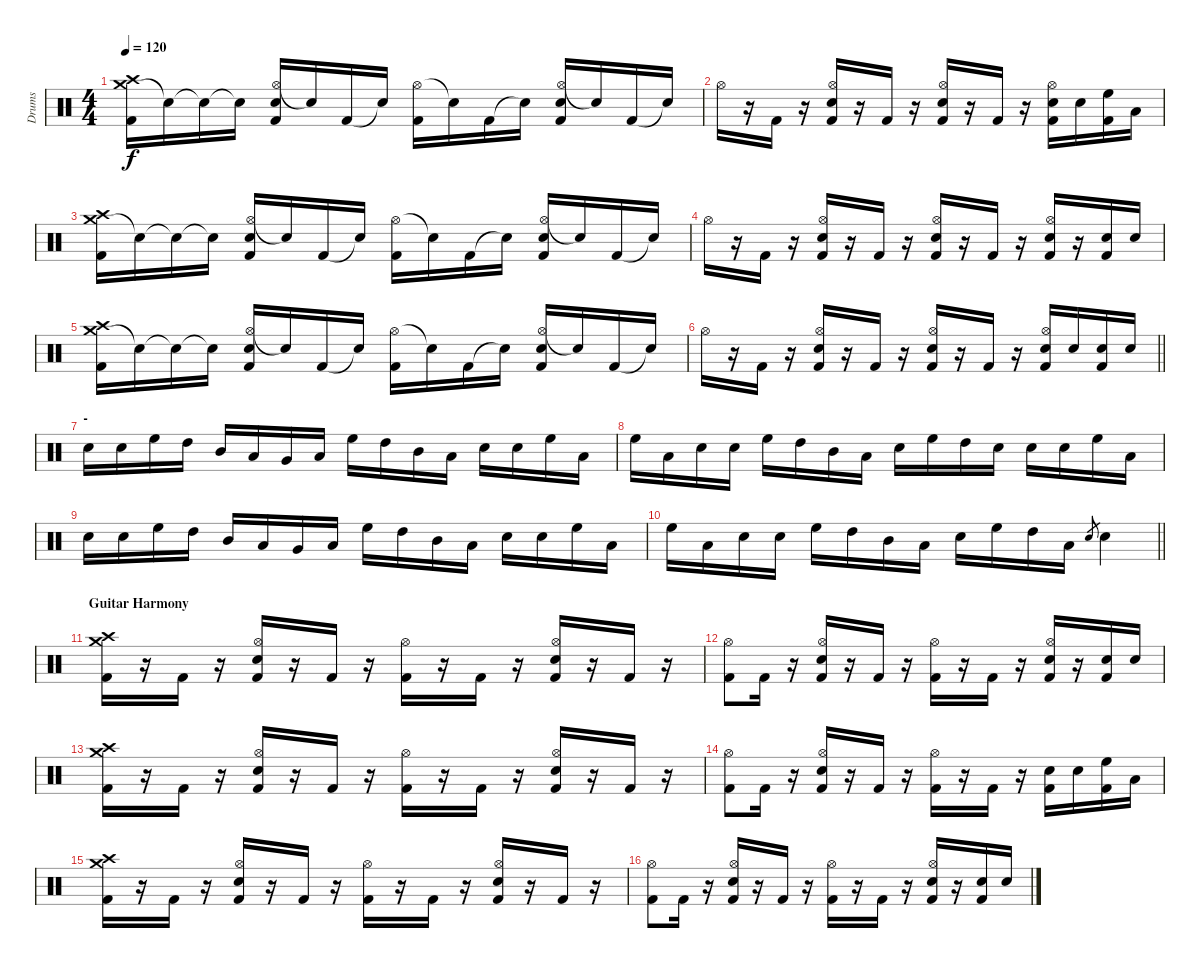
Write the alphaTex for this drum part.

\track ("Drums" "Drums") {instrument percussion}
\staff {score}
\articulation defaults
\ts (4 4)
\tempo 120
\clef neutral
\ks c
("Crash medium (hit)" "Crash high (hit)" "Kick (hit) 2").16{dy f} "Snare (hit)"{t}.16 "Snare (hit)"{t}.16 "Snare (hit)"{t}.16 ("Hi-Hat (open)" "Electric Snare (hit)" "Kick (hit) 2").16 "Snare (hit)"{t}.16 "Kick (hit) 2".16 "Snare (hit)"{t}.16 ("Hi-Hat (open)" "Kick (hit) 2").16 "Snare (hit)"{t}.16 "Kick (hit) 2".16 "Snare (hit)"{t}.16 ("Hi-Hat (open)" "Electric Snare (hit)" "Kick (hit) 2").16 "Snare (hit)"{t}.16 "Kick (hit) 2".16 "Snare (hit)"{t}.16 |
"Hi-Hat (open)".16 r.16 "Kick (hit) 2".16 r.16 ("Hi-Hat (open)" "Electric Snare (hit)" "Kick (hit) 2").16 r.16 "Kick (hit) 2".16 r.16 ("Hi-Hat (open)" "Electric Snare (hit)" "Kick (hit) 2").16 r.16 "Kick (hit) 2".16 r.16 ("Hi-Hat (open)" "Electric Snare (hit)" "Kick (hit) 2").16 "Electric Snare (hit)".16 ("High Floor Tom (hit)" "Kick (hit) 2").16 "Low Tom (hit)".16 |
("Crash medium (hit)" "Crash high (hit)" "Kick (hit) 2").16 "Snare (hit)"{t}.16 "Snare (hit)"{t}.16 "Snare (hit)"{t}.16 ("Hi-Hat (open)" "Electric Snare (hit)" "Kick (hit) 2").16 "Snare (hit)"{t}.16 "Kick (hit) 2".16 "Snare (hit)"{t}.16 ("Hi-Hat (open)" "Kick (hit) 2").16 "Snare (hit)"{t}.16 "Kick (hit) 2".16 "Snare (hit)"{t}.16 ("Hi-Hat (open)" "Electric Snare (hit)" "Kick (hit) 2").16 "Snare (hit)"{t}.16 "Kick (hit) 2".16 "Snare (hit)"{t}.16 |
"Hi-Hat (open)".16 r.16 "Kick (hit) 2".16 r.16 ("Hi-Hat (open)" "Electric Snare (hit)" "Kick (hit) 2").16 r.16 "Kick (hit) 2".16 r.16 ("Hi-Hat (open)" "Electric Snare (hit)" "Kick (hit) 2").16 r.16 "Kick (hit) 2".16 r.16 ("Hi-Hat (open)" "Electric Snare (hit)" "Kick (hit) 2").16 r.16 ("Electric Snare (hit)" "Kick (hit) 2").16 "Electric Snare (hit)".16 |
("Crash medium (hit)" "Crash high (hit)" "Kick (hit) 2").16 "Snare (hit)"{t}.16 "Snare (hit)"{t}.16 "Snare (hit)"{t}.16 ("Hi-Hat (open)" "Electric Snare (hit)" "Kick (hit) 2").16 "Snare (hit)"{t}.16 "Kick (hit) 2".16 "Snare (hit)"{t}.16 ("Hi-Hat (open)" "Kick (hit) 2").16 "Snare (hit)"{t}.16 "Kick (hit) 2".16 "Snare (hit)"{t}.16 ("Hi-Hat (open)" "Electric Snare (hit)" "Kick (hit) 2").16 "Snare (hit)"{t}.16 "Kick (hit) 2".16 "Snare (hit)"{t}.16 |
\barLineRight lightlight "Hi-Hat (open)".16
r.16 "Kick (hit) 2".16 r.16 ("Hi-Hat (open)" "Electric Snare (hit)" "Kick (hit) 2").16 r.16 "Kick (hit) 2".16 r.16 ("Hi-Hat (open)" "Electric Snare (hit)" "Kick (hit) 2").16 r.16 "Kick (hit) 2".16 r.16 ("Hi-Hat (open)" "Electric Snare (hit)" "Kick (hit) 2").16 "Electric Snare (hit)".16 ("Electric Snare (hit)" "Kick (hit) 2").16 "Electric Snare (hit)".16 |
\section ("" "-")
"Electric Snare (hit)".16 "Electric Snare (hit)".16 "High Floor Tom (hit)".16 "High Tom (hit)".16 "Mid Tom (hit)".16 "Low Tom (hit)".16 "Very Low Tom (hit)".16 "Low Floor Tom (hit)".16 "High Floor Tom (hit)".16 "High Tom (hit)".16 "Mid Tom (hit)".16 "Low Tom (hit)".16 "Electric Snare (hit)".16 "Electric Snare (hit)".16 "High Floor Tom (hit)".16 "Low Tom (hit)".16 |
"High Floor Tom (hit)".16 "Low Tom (hit)".16 "Electric Snare (hit)".16 "Electric Snare (hit)".16 "High Floor Tom (hit)".16 "High Tom (hit)".16 "Mid Tom (hit)".16 "Low Tom (hit)".16 "Electric Snare (hit)".16 "High Floor Tom (hit)".16 "High Tom (hit)".16 "Electric Snare (hit)".16 "Electric Snare (hit)".16 "Electric Snare (hit)".16 "High Floor Tom (hit)".16 "Low Tom (hit)".16 |
"Electric Snare (hit)".16 "Electric Snare (hit)".16 "High Floor Tom (hit)".16 "High Tom (hit)".16 "Mid Tom (hit)".16 "Low Tom (hit)".16 "Very Low Tom (hit)".16 "Low Floor Tom (hit)".16 "High Floor Tom (hit)".16 "High Tom (hit)".16 "Mid Tom (hit)".16 "Low Tom (hit)".16 "Electric Snare (hit)".16 "Electric Snare (hit)".16 "High Floor Tom (hit)".16 "Low Tom (hit)".16 |
\barLineRight lightlight "High Floor Tom (hit)".16 "Low Tom (hit)".16 "Electric Snare (hit)".16 "Electric Snare (hit)".16 "High Floor Tom (hit)".16 "High Tom (hit)".16 "Mid Tom (hit)".16 "Low Tom (hit)".16 "Electric Snare (hit)".16 "High Floor Tom (hit)".16 "High Tom (hit)".16 "Low Tom (hit)".16 "Electric Snare (hit)".8{gr} "Electric Snare (hit)".4
|
\section ("" "Guitar Harmony")
("Crash medium (hit)" "Crash high (hit)" "Kick (hit) 2").16 r.16 "Kick (hit) 2".16 r.16 ("Hi-Hat (open)" "Electric Snare (hit)" "Kick (hit) 2").16 r.16 "Kick (hit) 2".16 r.16 ("Hi-Hat (open)" "Kick (hit) 2").16 r.16 "Kick (hit) 2".16 r.16 ("Hi-Hat (open)" "Electric Snare (hit)" "Kick (hit) 2").16 r.16 "Kick (hit) 2".16 r.16 |
("Hi-Hat (open)" "Kick (hit) 2").8 "Kick (hit) 2".16 r.16 ("Hi-Hat (open)" "Electric Snare (hit)" "Kick (hit) 2").16 r.16 "Kick (hit) 2".16 r.16 ("Hi-Hat (open)" "Kick (hit) 2").16 r.16 "Kick (hit) 2".16 r.16 ("Hi-Hat (open)" "Electric Snare (hit)" "Kick (hit) 2").16 r.16 ("Electric Snare (hit)" "Kick (hit) 2").16 "Electric Snare (hit)".16 |
("Crash medium (hit)" "Crash high (hit)" "Kick (hit) 2").16 r.16 "Kick (hit) 2".16 r.16 ("Hi-Hat (open)" "Electric Snare (hit)" "Kick (hit) 2").16 r.16 "Kick (hit) 2".16 r.16 ("Hi-Hat (open)" "Kick (hit) 2").16 r.16 "Kick (hit) 2".16 r.16 ("Hi-Hat (open)" "Electric Snare (hit)" "Kick (hit) 2").16 r.16 "Kick (hit) 2".16 r.16 |
("Hi-Hat (open)" "Kick (hit) 2").8 "Kick (hit) 2".16 r.16 ("Hi-Hat (open)" "Electric Snare (hit)" "Kick (hit) 2").16 r.16 "Kick (hit) 2".16 r.16 ("Hi-Hat (open)" "Kick (hit) 2").16 r.16 "Kick (hit) 2".16 r.16 ("Electric Snare (hit)" "Kick (hit) 2").16 "Electric Snare (hit)".16 ("High Floor Tom (hit)" "Kick (hit) 2").16 "Low Tom (hit)".16 |
("Crash medium (hit)" "Crash high (hit)" "Kick (hit) 2").16 r.16 "Kick (hit) 2".16 r.16 ("Hi-Hat (open)" "Electric Snare (hit)" "Kick (hit) 2").16 r.16 "Kick (hit) 2".16 r.16 ("Hi-Hat (open)" "Kick (hit) 2").16 r.16 "Kick (hit) 2".16 r.16 ("Hi-Hat (open)" "Electric Snare (hit)" "Kick (hit) 2").16 r.16 "Kick (hit) 2".16 r.16 |
("Hi-Hat (open)" "Kick (hit) 2").8 "Kick (hit) 2".16 r.16 ("Hi-Hat (open)" "Electric Snare (hit)" "Kick (hit) 2").16 r.16 "Kick (hit) 2".16 r.16 ("Hi-Hat (open)" "Kick (hit) 2").16 r.16 "Kick (hit) 2".16 r.16 ("Hi-Hat (open)" "Electric Snare (hit)" "Kick (hit) 2").16 r.16 ("Electric Snare (hit)" "Kick (hit) 2").16 "Electric Snare (hit)".16
